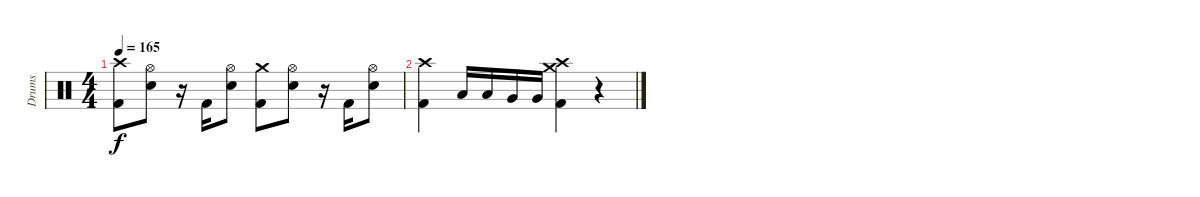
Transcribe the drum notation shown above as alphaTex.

\track ("Drums" "Drums") {instrument percussion}
\staff {score}
\articulation defaults
\ts (4 4)
\tempo 165
\clef neutral
\ks c
("Crash high (hit)" "Kick (hit) 2").8{dy f} ("Hi-Hat (open)" "Electric Snare (hit)").8 r.16 "Kick (hit) 2".16 ("Hi-Hat (open)" "Electric Snare (hit)").8 ("Crash medium (hit)" "Kick (hit) 2").8 ("Hi-Hat (open)" "Electric Snare (hit)").8 r.16 "Kick (hit) 2".16 ("Hi-Hat (open)" "Electric Snare (hit)").8 |
("Crash high (hit)" "Kick (hit) 2").4 "Low Tom (hit)".16 "Low Tom (hit)".16 "Very Low Tom (hit)".16 "Very Low Tom (hit)".16 ("Crash high (hit)" "Crash medium (hit)" "Kick (hit) 2").4 r.4
